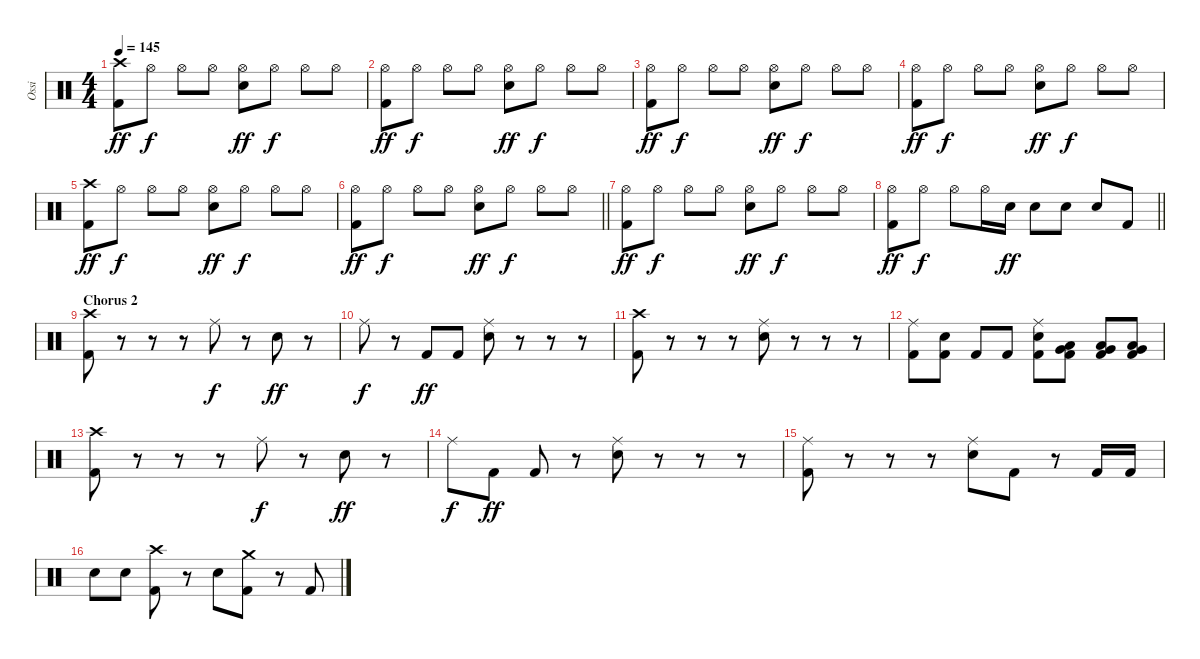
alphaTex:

\track ("Ossi" "Ossi") {instrument percussion}
\staff {score}
\articulation defaults
\ts (4 4)
\tempo 145
\clef neutral
\ks c
("Crash high (hit)" "Kick (hit) 2").8{dy ff} "Hi-Hat (open)".8{dy f} "Hi-Hat (open)".8 "Hi-Hat (open)".8 ("Hi-Hat (open)" "Electric Snare (hit)").8{dy ff} "Hi-Hat (open)".8{dy f} "Hi-Hat (open)".8 "Hi-Hat (open)".8 |
("Hi-Hat (open)" "Kick (hit) 2").8{dy ff} "Hi-Hat (open)".8{dy f} "Hi-Hat (open)".8 "Hi-Hat (open)".8 ("Hi-Hat (open)" "Electric Snare (hit)").8{dy ff} "Hi-Hat (open)".8{dy f} "Hi-Hat (open)".8 "Hi-Hat (open)".8 |
("Hi-Hat (open)" "Kick (hit) 2").8{dy ff} "Hi-Hat (open)".8{dy f} "Hi-Hat (open)".8 "Hi-Hat (open)".8 ("Hi-Hat (open)" "Electric Snare (hit)").8{dy ff} "Hi-Hat (open)".8{dy f} "Hi-Hat (open)".8 "Hi-Hat (open)".8 |
("Hi-Hat (open)" "Kick (hit) 2").8{dy ff} "Hi-Hat (open)".8{dy f} "Hi-Hat (open)".8 "Hi-Hat (open)".8 ("Hi-Hat (open)" "Electric Snare (hit)").8{dy ff} "Hi-Hat (open)".8{dy f} "Hi-Hat (open)".8 "Hi-Hat (open)".8 |
("Crash high (hit)" "Kick (hit) 2").8{dy ff} "Hi-Hat (open)".8{dy f} "Hi-Hat (open)".8 "Hi-Hat (open)".8 ("Hi-Hat (open)" "Electric Snare (hit)").8{dy ff} "Hi-Hat (open)".8{dy f} "Hi-Hat (open)".8 "Hi-Hat (open)".8 |
\barLineRight lightlight
("Hi-Hat (open)" "Kick (hit) 2").8{dy ff} "Hi-Hat (open)".8{dy f} "Hi-Hat (open)".8 "Hi-Hat (open)".8 ("Hi-Hat (open)" "Electric Snare (hit)").8{dy ff} "Hi-Hat (open)".8{dy f} "Hi-Hat (open)".8 "Hi-Hat (open)".8 |
\section ("" "")
("Hi-Hat (open)" "Kick (hit) 2").8{dy ff} "Hi-Hat (open)".8{dy f} "Hi-Hat (open)".8 "Hi-Hat (open)".8 ("Hi-Hat (open)" "Electric Snare (hit)").8{dy ff} "Hi-Hat (open)".8{dy f} "Hi-Hat (open)".8 "Hi-Hat (open)".8 |
\barLineRight lightlight
("Hi-Hat (open)" "Kick (hit) 2").8{dy ff} "Hi-Hat (open)".8{dy f} "Hi-Hat (open)".8 "Hi-Hat (open)".16 "Electric Snare (hit)".16{dy ff} "Electric Snare (hit)".8 "Electric Snare (hit)".8 "Electric Snare (hit)".8 "Kick (hit) 2".8 |
\section ("" "Chorus 2")
("Crash high (hit)" "Kick (hit) 2").8 r.8 r.8 r.8 "Ride (middle)".8{dy f} r.8 "Electric Snare (hit)".8{dy ff} r.8 |
"Ride (middle)".8{dy f} r.8 "Kick (hit) 2".8{dy ff} "Kick (hit) 2".8 ("Ride (middle)" "Electric Snare (hit)").8 r.8 r.8 r.8 |
("Crash high (hit)" "Kick (hit) 2").8 r.8 r.8 r.8 ("Ride (middle)" "Electric Snare (hit)").8 r.8 r.8 r.8 |
("Ride (middle)" "Kick (hit) 2").8 ("Electric Snare (hit)" "Kick (hit) 2").8 "Kick (hit) 2".8 "Kick (hit) 2".8 ("Ride (middle)" "Electric Snare (hit)" "Kick (hit) 2").8 ("Low Tom (hit)" "Very Low Tom (hit)" "Kick (hit) 2").8 ("Low Tom (hit)" "Very Low Tom (hit)" "Kick (hit) 2").8 ("Low Tom (hit)" "Very Low Tom (hit)" "Kick (hit) 2").8 |
("Crash high (hit)" "Kick (hit) 2").8 r.8 r.8 r.8 "Ride (middle)".8{dy f} r.8 "Electric Snare (hit)".8{dy ff} r.8 |
"Ride (middle)".8{dy f} "Kick (hit) 2".8{dy ff} "Kick (hit) 2".8 r.8 ("Ride (middle)" "Electric Snare (hit)").8 r.8 r.8 r.8 |
("Ride (middle)" "Kick (hit) 2").8 r.8 r.8 r.8 ("Ride (middle)" "Electric Snare (hit)").8 "Kick (hit) 2".8 r.8 "Kick (hit) 2".16 "Kick (hit) 2".16 |
"Electric Snare (hit)".8 "Electric Snare (hit)".8 ("Crash high (hit)" "Kick (hit) 2").8 r.8 "Electric Snare (hit)".8 ("Crash medium (hit)" "Kick (hit) 2").8 r.8 "Kick (hit) 2".8
